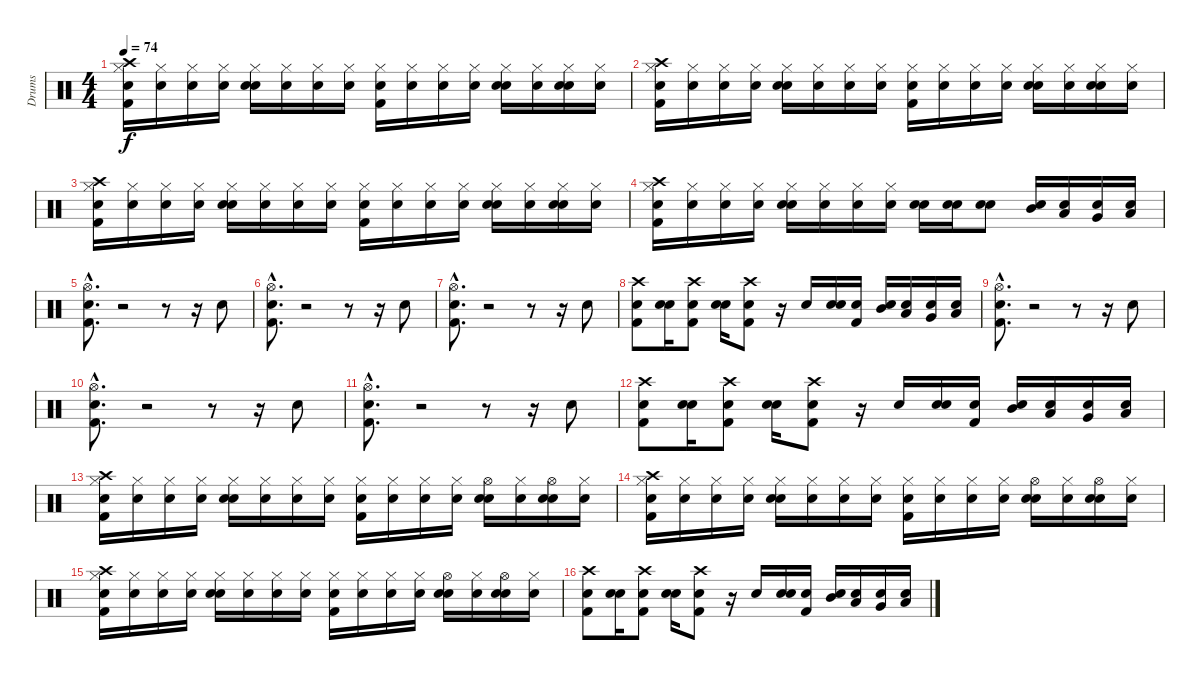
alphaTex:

\track ("Drums" "Drums") {instrument percussion}
\staff {score}
\articulation defaults
\ts (4 4)
\tempo 74
\clef neutral
\ks c
("Snare (hit)" "Kick (hit) 2" "Hi-Hat (closed)" "Crash high (hit)").16{dy f} ("Snare (hit)" "Hi-Hat (closed)").16 ("Snare (hit)" "Hi-Hat (closed)").16 ("Snare (hit)" "Hi-Hat (closed)").16 ("Snare (hit)" "Snare (hit) 2" "Hi-Hat (closed)").16 ("Snare (hit)" "Hi-Hat (closed)").16 ("Snare (hit)" "Hi-Hat (closed)").16 ("Snare (hit)" "Hi-Hat (closed)").16 ("Snare (hit)" "Kick (hit) 2" "Hi-Hat (closed)").16 ("Snare (hit)" "Hi-Hat (closed)").16 ("Snare (hit)" "Hi-Hat (closed)").16 ("Snare (hit)" "Hi-Hat (closed)").16 ("Snare (hit)" "Snare (hit) 2" "Hi-Hat (closed)").16 ("Snare (hit)" "Hi-Hat (closed)").16 ("Snare (hit)" "Snare (hit) 2" "Hi-Hat (closed)").16 ("Snare (hit)" "Hi-Hat (closed)").16 |
("Snare (hit)" "Kick (hit) 2" "Hi-Hat (closed)" "Crash high (hit)").16 ("Snare (hit)" "Hi-Hat (closed)").16 ("Snare (hit)" "Hi-Hat (closed)").16 ("Snare (hit)" "Hi-Hat (closed)").16 ("Snare (hit)" "Snare (hit) 2" "Hi-Hat (closed)").16 ("Snare (hit)" "Hi-Hat (closed)").16 ("Snare (hit)" "Hi-Hat (closed)").16 ("Snare (hit)" "Hi-Hat (closed)").16 ("Snare (hit)" "Kick (hit) 2" "Hi-Hat (closed)").16 ("Snare (hit)" "Hi-Hat (closed)").16 ("Snare (hit)" "Hi-Hat (closed)").16 ("Snare (hit)" "Hi-Hat (closed)").16 ("Snare (hit)" "Snare (hit) 2" "Hi-Hat (closed)").16 ("Snare (hit)" "Hi-Hat (closed)").16 ("Snare (hit)" "Snare (hit) 2" "Hi-Hat (closed)").16 ("Snare (hit)" "Hi-Hat (closed)").16 |
("Snare (hit)" "Kick (hit) 2" "Hi-Hat (closed)" "Crash high (hit)").16 ("Snare (hit)" "Hi-Hat (closed)").16 ("Snare (hit)" "Hi-Hat (closed)").16 ("Snare (hit)" "Hi-Hat (closed)").16 ("Snare (hit)" "Snare (hit) 2" "Hi-Hat (closed)").16 ("Snare (hit)" "Hi-Hat (closed)").16 ("Snare (hit)" "Hi-Hat (closed)").16 ("Snare (hit)" "Hi-Hat (closed)").16 ("Snare (hit)" "Kick (hit) 2" "Hi-Hat (closed)").16 ("Snare (hit)" "Hi-Hat (closed)").16 ("Snare (hit)" "Hi-Hat (closed)").16 ("Snare (hit)" "Hi-Hat (closed)").16 ("Snare (hit)" "Snare (hit) 2" "Hi-Hat (closed)").16 ("Snare (hit)" "Hi-Hat (closed)").16 ("Snare (hit)" "Snare (hit) 2" "Hi-Hat (closed)").16 ("Snare (hit)" "Hi-Hat (closed)").16 |
("Snare (hit)" "Kick (hit) 2" "Hi-Hat (closed)" "Crash high (hit)").16 ("Snare (hit)" "Hi-Hat (closed)").16 ("Snare (hit)" "Hi-Hat (closed)").16 ("Snare (hit)" "Hi-Hat (closed)").16 ("Snare (hit)" "Snare (hit) 2" "Hi-Hat (closed)").16 ("Snare (hit)" "Hi-Hat (closed)").16 ("Snare (hit)" "Hi-Hat (closed)").16 ("Snare (hit)" "Hi-Hat (closed)").16 ("Snare (hit)" "Snare (hit) 2").16 ("Snare (hit)" "Snare (hit) 2").16 ("Snare (hit)" "Snare (hit) 2").8 ("Snare (hit)" "Mid Tom (hit)").16 ("Snare (hit)" "Low Tom (hit)").16 ("Snare (hit)" "Very Low Tom (hit)").16 ("Snare (hit)" "Low Floor Tom (hit)").16 |
("Snare (hit)"{hac} "Kick (hit) 2"{hac} "Hi-Hat (open)"{hac}).8{d} r.2 r.8 r.16 "Snare (hit) 2".8 |
("Snare (hit)"{hac} "Kick (hit) 2"{hac} "Hi-Hat (open)"{hac}).8{d} r.2 r.8 r.16 "Snare (hit) 2".8 |
("Snare (hit)"{hac} "Kick (hit) 2"{hac} "Hi-Hat (open)"{hac}).8{d} r.2 r.8 r.16 "Snare (hit) 2".8 |
("Snare (hit)" "Kick (hit) 2" "Crash high (hit)").8 ("Snare (hit)" "Snare (hit) 2").16 ("Snare (hit)" "Kick (hit) 2" "Crash high (hit)").8 ("Snare (hit)" "Snare (hit) 2").16 ("Snare (hit)" "Kick (hit) 2" "Crash high (hit)").8 r.16 "Snare (hit) 2".16 ("Snare (hit)" "Snare (hit) 2").16 ("Snare (hit)" "Kick (hit) 2").16 ("Snare (hit)" "Mid Tom (hit)").16 ("Snare (hit)" "Low Tom (hit)").16 ("Snare (hit)" "Very Low Tom (hit)").16 ("Snare (hit)" "Low Floor Tom (hit)").16 |
("Snare (hit)"{hac} "Kick (hit) 2"{hac} "Hi-Hat (open)"{hac}).8{d} r.2 r.8 r.16 "Snare (hit) 2".8 |
("Snare (hit)"{hac} "Kick (hit) 2"{hac} "Hi-Hat (open)"{hac}).8{d} r.2 r.8 r.16 "Snare (hit) 2".8 |
("Snare (hit)"{hac} "Kick (hit) 2"{hac} "Hi-Hat (open)"{hac}).8{d} r.2 r.8 r.16 "Snare (hit) 2".8 |
("Snare (hit)" "Kick (hit) 2" "Crash high (hit)").8 ("Snare (hit)" "Snare (hit) 2").16 ("Snare (hit)" "Kick (hit) 2" "Crash high (hit)").8 ("Snare (hit)" "Snare (hit) 2").16 ("Snare (hit)" "Kick (hit) 2" "Crash high (hit)").8 r.16 "Snare (hit) 2".16 ("Snare (hit)" "Snare (hit) 2").16 ("Snare (hit)" "Kick (hit) 2").16 ("Snare (hit)" "Mid Tom (hit)").16 ("Snare (hit)" "Low Tom (hit)").16 ("Snare (hit)" "Very Low Tom (hit)").16 ("Snare (hit)" "Low Floor Tom (hit)").16 |
("Snare (hit)" "Kick (hit) 2" "Hi-Hat (closed)" "Crash high (hit)").16 ("Snare (hit)" "Hi-Hat (closed)").16 ("Snare (hit)" "Hi-Hat (closed)").16 ("Snare (hit)" "Hi-Hat (closed)").16 ("Snare (hit)" "Snare (hit) 2" "Hi-Hat (closed)").16 ("Snare (hit)" "Hi-Hat (closed)").16 ("Snare (hit)" "Hi-Hat (closed)").16 ("Snare (hit)" "Hi-Hat (closed)").16 ("Snare (hit)" "Kick (hit) 2" "Hi-Hat (closed)").16 ("Snare (hit)" "Hi-Hat (closed)").16 ("Snare (hit)" "Hi-Hat (closed)").16 ("Snare (hit)" "Hi-Hat (closed)").16 ("Snare (hit)" "Snare (hit) 2" "Hi-Hat (open)").16 ("Snare (hit)" "Hi-Hat (closed)").16 ("Snare (hit)" "Snare (hit) 2" "Hi-Hat (open)").16 ("Snare (hit)" "Hi-Hat (closed)").16 |
("Snare (hit)" "Kick (hit) 2" "Hi-Hat (closed)" "Crash high (hit)").16 ("Snare (hit)" "Hi-Hat (closed)").16 ("Snare (hit)" "Hi-Hat (closed)").16 ("Snare (hit)" "Hi-Hat (closed)").16 ("Snare (hit)" "Snare (hit) 2" "Hi-Hat (closed)").16 ("Snare (hit)" "Hi-Hat (closed)").16 ("Snare (hit)" "Hi-Hat (closed)").16 ("Snare (hit)" "Hi-Hat (closed)").16 ("Snare (hit)" "Kick (hit) 2" "Hi-Hat (closed)").16 ("Snare (hit)" "Hi-Hat (closed)").16 ("Snare (hit)" "Hi-Hat (closed)").16 ("Snare (hit)" "Hi-Hat (closed)").16 ("Snare (hit)" "Snare (hit) 2" "Hi-Hat (open)").16 ("Snare (hit)" "Hi-Hat (closed)").16 ("Snare (hit)" "Snare (hit) 2" "Hi-Hat (open)").16 ("Snare (hit)" "Hi-Hat (closed)").16 |
("Snare (hit)" "Kick (hit) 2" "Hi-Hat (closed)" "Crash high (hit)").16 ("Snare (hit)" "Hi-Hat (closed)").16 ("Snare (hit)" "Hi-Hat (closed)").16 ("Snare (hit)" "Hi-Hat (closed)").16 ("Snare (hit)" "Snare (hit) 2" "Hi-Hat (closed)").16 ("Snare (hit)" "Hi-Hat (closed)").16 ("Snare (hit)" "Hi-Hat (closed)").16 ("Snare (hit)" "Hi-Hat (closed)").16 ("Snare (hit)" "Kick (hit) 2" "Hi-Hat (closed)").16 ("Snare (hit)" "Hi-Hat (closed)").16 ("Snare (hit)" "Hi-Hat (closed)").16 ("Snare (hit)" "Hi-Hat (closed)").16 ("Snare (hit)" "Snare (hit) 2" "Hi-Hat (open)").16 ("Snare (hit)" "Hi-Hat (closed)").16 ("Snare (hit)" "Snare (hit) 2" "Hi-Hat (open)").16 ("Snare (hit)" "Hi-Hat (closed)").16 |
("Snare (hit)" "Kick (hit) 2" "Crash high (hit)").8 ("Snare (hit)" "Snare (hit) 2").16 ("Snare (hit)" "Kick (hit) 2" "Crash high (hit)").8 ("Snare (hit)" "Snare (hit) 2").16 ("Snare (hit)" "Kick (hit) 2" "Crash high (hit)").8 r.16 "Snare (hit) 2".16 ("Snare (hit)" "Snare (hit) 2").16 ("Snare (hit)" "Kick (hit) 2").16 ("Snare (hit)" "Mid Tom (hit)").16 ("Snare (hit)" "Low Tom (hit)").16 ("Snare (hit)" "Very Low Tom (hit)").16 ("Snare (hit)" "Low Floor Tom (hit)").16
